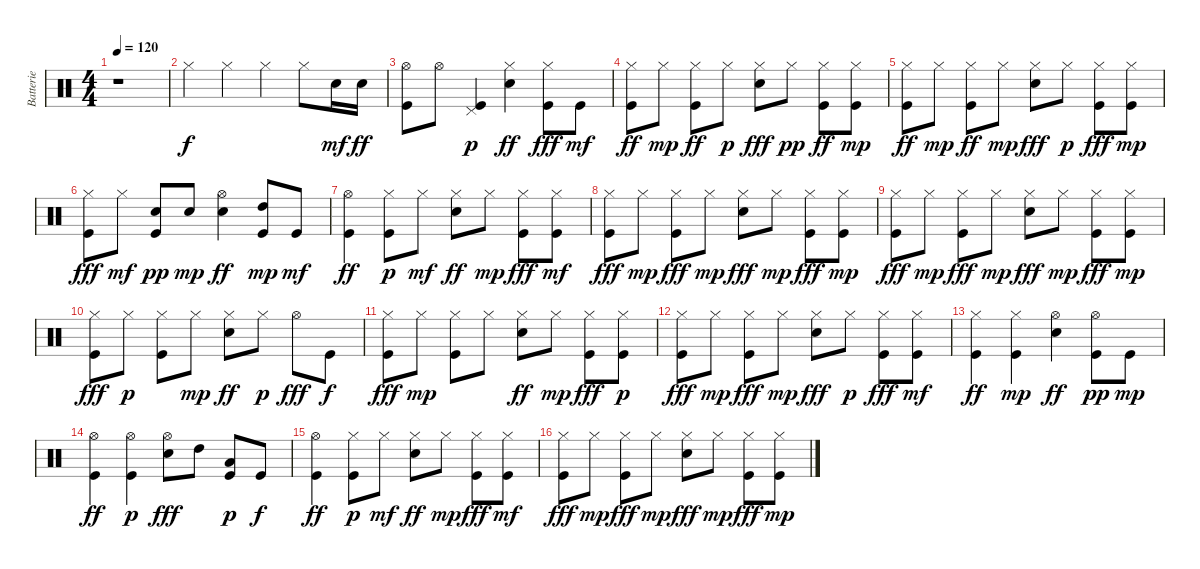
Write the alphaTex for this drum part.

\track ("Batterie" "Batterie") {instrument percussion}
\staff {score}
\articulation defaults
\ts (4 4)
\tempo 120
\clef neutral
\ks c
r.1{dy f} |
"Hi-Hat (closed)".4 "Hi-Hat (closed)".4 "Hi-Hat (closed)".4 "Hi-Hat (closed)".8 "Electric Snare (hit)".16{dy mf} "Electric Snare (hit)".16{dy ff} |
("Kick (hit)" "Hi-Hat (open)").8 "Hi-Hat (open)".8 ("Pedal Hi-Hat (hit)" "Kick (hit)").4{dy p} ("Hi-Hat (closed)" "Electric Snare (hit)").4{dy ff} ("Kick (hit)" "Hi-Hat (closed)").8{dy fff} "Kick (hit)".8{dy mf} |
("Kick (hit)" "Hi-Hat (closed)").8{dy ff} "Hi-Hat (closed)".8{dy mp} ("Kick (hit)" "Hi-Hat (closed)").8{dy ff} "Hi-Hat (closed)".8{dy p} ("Electric Snare (hit)" "Hi-Hat (closed)").8{dy fff} "Hi-Hat (closed)".8{dy pp} ("Kick (hit)" "Hi-Hat (closed)").8{dy ff} ("Kick (hit)" "Hi-Hat (closed)").8{dy mp} |
("Kick (hit)" "Hi-Hat (closed)").8{dy ff} "Hi-Hat (closed)".8{dy mp} ("Kick (hit)" "Hi-Hat (closed)").8{dy ff} "Hi-Hat (closed)".8{dy mp} ("Electric Snare (hit)" "Hi-Hat (closed)").8{dy fff} "Hi-Hat (closed)".8{dy p} ("Kick (hit)" "Hi-Hat (closed)").8{dy fff} ("Kick (hit)" "Hi-Hat (closed)").8{dy mp} |
("Kick (hit)" "Hi-Hat (closed)").8{dy fff} "Hi-Hat (closed)".8{dy mf} ("Kick (hit)" "Electric Snare (hit)").8{dy pp} "Electric Snare (hit)".8{dy mp} ("Hi-Hat (open)" "Electric Snare (hit)").4{dy ff} ("High Tom (hit)" "Kick (hit)").8{dy mp} "Kick (hit)".8{dy mf} |
("Hi-Hat (open)" "Kick (hit)").4{dy ff} ("Hi-Hat (closed)" "Kick (hit)").8{dy p} "Hi-Hat (closed)".8{dy mf} ("Hi-Hat (closed)" "Electric Snare (hit)").8{dy ff} "Hi-Hat (closed)".8{dy mp} ("Kick (hit)" "Hi-Hat (closed)").8{dy fff} ("Kick (hit)" "Hi-Hat (closed)").8{dy mf} |
("Kick (hit)" "Hi-Hat (closed)").8{dy fff} "Hi-Hat (closed)".8{dy mp} ("Kick (hit)" "Hi-Hat (closed)").8{dy fff} "Hi-Hat (closed)".8{dy mp} ("Electric Snare (hit)" "Hi-Hat (closed)").8{dy fff} "Hi-Hat (closed)".8{dy mp} ("Kick (hit)" "Hi-Hat (closed)").8{dy fff} ("Hi-Hat (closed)" "Kick (hit)").8{dy mp} |
("Kick (hit)" "Hi-Hat (closed)").8{dy fff} "Hi-Hat (closed)".8{dy mp} ("Kick (hit)" "Hi-Hat (closed)").8{dy fff} "Hi-Hat (closed)".8{dy mp} ("Electric Snare (hit)" "Hi-Hat (closed)").8{dy fff} "Hi-Hat (closed)".8{dy mp} ("Kick (hit)" "Hi-Hat (closed)").8{dy fff} ("Hi-Hat (closed)" "Kick (hit)").8{dy mp} |
("Kick (hit)" "Hi-Hat (closed)").8{dy fff} "Hi-Hat (closed)".8{dy p} ("Hi-Hat (closed)" "Kick (hit)").8 "Hi-Hat (closed)".8{dy mp} ("Hi-Hat (closed)" "Electric Snare (hit)").8{dy ff} "Hi-Hat (closed)".8{dy p} "Hi-Hat (open)".8{dy fff} "Kick (hit)".8{dy f} |
("Kick (hit)" "Hi-Hat (closed)").8{dy fff} "Hi-Hat (closed)".8{dy mp} ("Hi-Hat (closed)" "Kick (hit)").8 "Hi-Hat (closed)".8 ("Hi-Hat (closed)" "Electric Snare (hit)").8{dy ff} "Hi-Hat (closed)".8{dy mp} ("Kick (hit)" "Hi-Hat (closed)").8{dy fff} ("Kick (hit)" "Hi-Hat (closed)").8{dy p} |
("Kick (hit)" "Hi-Hat (closed)").8{dy fff} "Hi-Hat (closed)".8{dy mp} ("Kick (hit)" "Hi-Hat (closed)").8{dy fff} "Hi-Hat (closed)".8{dy mp} ("Electric Snare (hit)" "Hi-Hat (closed)").8{dy fff} "Hi-Hat (closed)".8{dy p} ("Kick (hit)" "Hi-Hat (closed)").8{dy fff} ("Kick (hit)" "Hi-Hat (closed)").8{dy mf} |
("Kick (hit)" "Hi-Hat (closed)").4{dy ff} ("Hi-Hat (closed)" "Kick (hit)").4{dy mp} ("Hi-Hat (open)" "Electric Snare (hit)").4{dy ff} ("Hi-Hat (open)" "Kick (hit)").8{dy pp} "Kick (hit)".8{dy mp} |
("Hi-Hat (open)" "Kick (hit)").4{dy ff} ("Hi-Hat (open)" "Kick (hit)").4{dy p} ("Electric Snare (hit)" "Hi-Hat (open)").8{dy fff} "High Tom (hit)".8 ("Low Tom (hit)" "Kick (hit)").8{dy p} "Kick (hit)".8{dy f} |
("Hi-Hat (open)" "Kick (hit)").4{dy ff} ("Hi-Hat (closed)" "Kick (hit)").8{dy p} "Hi-Hat (closed)".8{dy mf} ("Hi-Hat (closed)" "Electric Snare (hit)").8{dy ff} "Hi-Hat (closed)".8{dy mp} ("Kick (hit)" "Hi-Hat (closed)").8{dy fff} ("Kick (hit)" "Hi-Hat (closed)").8{dy mf} |
("Kick (hit)" "Hi-Hat (closed)").8{dy fff} "Hi-Hat (closed)".8{dy mp} ("Kick (hit)" "Hi-Hat (closed)").8{dy fff} "Hi-Hat (closed)".8{dy mp} ("Electric Snare (hit)" "Hi-Hat (closed)").8{dy fff} "Hi-Hat (closed)".8{dy mp} ("Kick (hit)" "Hi-Hat (closed)").8{dy fff} ("Hi-Hat (closed)" "Kick (hit)").8{dy mp}
